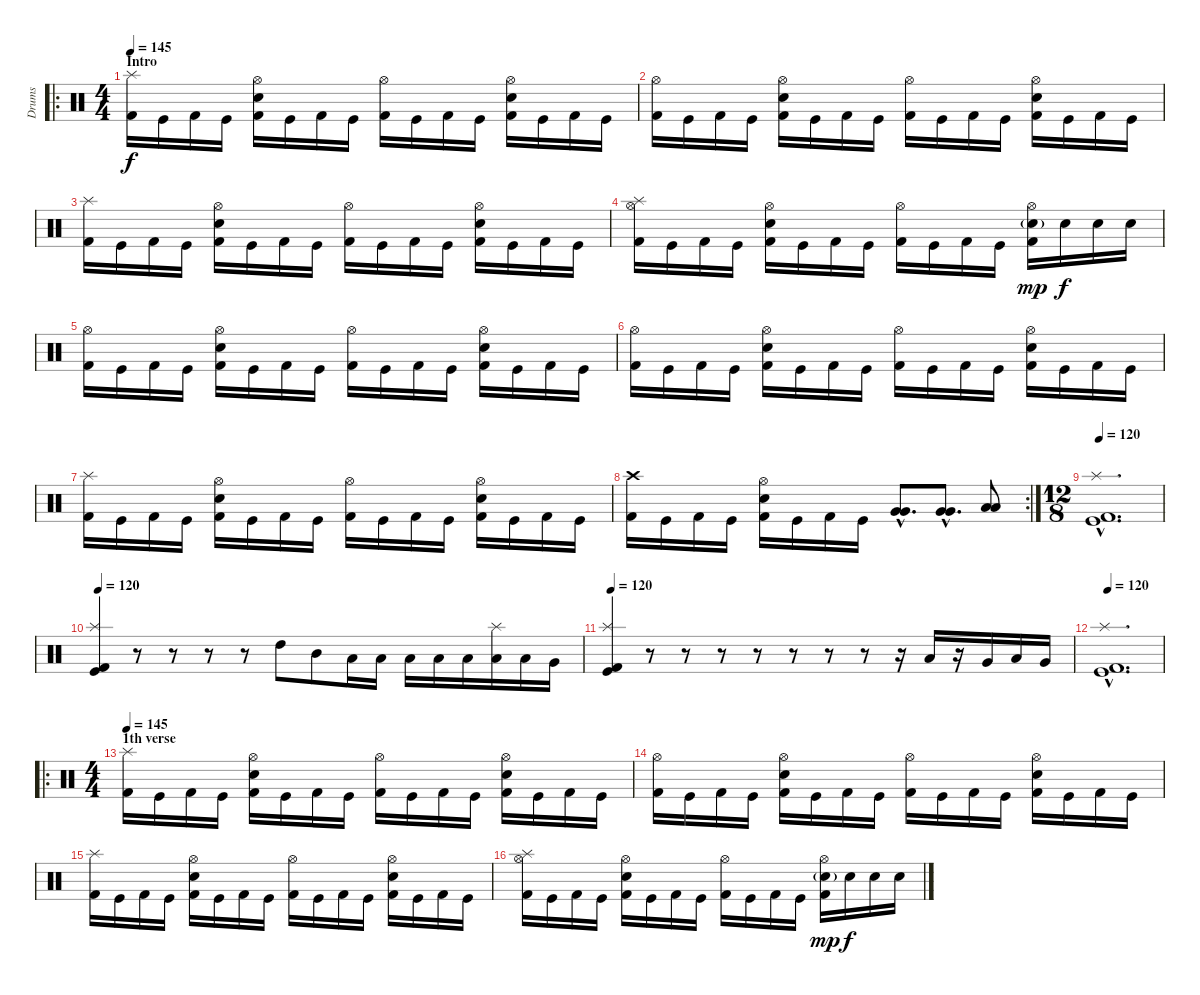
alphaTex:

\track ("Drums" "Drums") {instrument percussion}
\staff {score}
\articulation defaults
\ro
\ts (4 4)
\section ("" "Intro")
\tempo 145
\clef neutral
\ks c
("Kick (hit) 2" "Splash (hit)").16{dy f} "Kick (hit)".16 "Kick (hit) 2".16 "Kick (hit)".16 ("Kick (hit) 2" "Electric Snare (hit)" "Hi-Hat (open)").16 "Kick (hit)".16 "Kick (hit) 2".16 "Kick (hit)".16 ("Kick (hit) 2" "Hi-Hat (open)").16 "Kick (hit)".16 "Kick (hit) 2".16 "Kick (hit)".16 ("Kick (hit) 2" "Electric Snare (hit)" "Hi-Hat (open)").16 "Kick (hit)".16 "Kick (hit) 2".16 "Kick (hit)".16 |
("Kick (hit) 2" "Hi-Hat (open)").16 "Kick (hit)".16 "Kick (hit) 2".16 "Kick (hit)".16 ("Kick (hit) 2" "Electric Snare (hit)" "Hi-Hat (open)").16 "Kick (hit)".16 "Kick (hit) 2".16 "Kick (hit)".16 ("Kick (hit) 2" "Hi-Hat (open)").16 "Kick (hit)".16 "Kick (hit) 2".16 "Kick (hit)".16 ("Kick (hit) 2" "Electric Snare (hit)" "Hi-Hat (open)").16 "Kick (hit)".16 "Kick (hit) 2".16 "Kick (hit)".16 |
("Kick (hit) 2" "Splash (hit)").16 "Kick (hit)".16 "Kick (hit) 2".16 "Kick (hit)".16 ("Kick (hit) 2" "Electric Snare (hit)" "Hi-Hat (open)").16 "Kick (hit)".16 "Kick (hit) 2".16 "Kick (hit)".16 ("Kick (hit) 2" "Hi-Hat (open)").16 "Kick (hit)".16 "Kick (hit) 2".16 "Kick (hit)".16 ("Kick (hit) 2" "Electric Snare (hit)" "Hi-Hat (open)").16 "Kick (hit)".16 "Kick (hit) 2".16 "Kick (hit)".16 |
("Kick (hit) 2" "Splash (hit)" "Hi-Hat (open)").16 "Kick (hit)".16 "Kick (hit) 2".16 "Kick (hit)".16 ("Kick (hit) 2" "Electric Snare (hit)" "Hi-Hat (open)").16 "Kick (hit)".16 "Kick (hit) 2".16 "Kick (hit)".16 ("Kick (hit) 2" "Hi-Hat (open)").16 "Kick (hit)".16 "Kick (hit) 2".16 "Kick (hit)".16 ("Kick (hit) 2" "Electric Snare (hit)"{g} "Hi-Hat (open)").16{dy mp} "Electric Snare (hit)".16{dy f} "Electric Snare (hit)".16 "Electric Snare (hit)".16 |
("Kick (hit) 2" "Hi-Hat (open)").16 "Kick (hit)".16 "Kick (hit) 2".16 "Kick (hit)".16 ("Kick (hit) 2" "Electric Snare (hit)" "Hi-Hat (open)").16 "Kick (hit)".16 "Kick (hit) 2".16 "Kick (hit)".16 ("Kick (hit) 2" "Hi-Hat (open)").16 "Kick (hit)".16 "Kick (hit) 2".16 "Kick (hit)".16 ("Kick (hit) 2" "Electric Snare (hit)" "Hi-Hat (open)").16 "Kick (hit)".16 "Kick (hit) 2".16 "Kick (hit)".16 |
("Kick (hit) 2" "Hi-Hat (open)").16 "Kick (hit)".16 "Kick (hit) 2".16 "Kick (hit)".16 ("Kick (hit) 2" "Electric Snare (hit)" "Hi-Hat (open)").16 "Kick (hit)".16 "Kick (hit) 2".16 "Kick (hit)".16 ("Kick (hit) 2" "Hi-Hat (open)").16 "Kick (hit)".16 "Kick (hit) 2".16 "Kick (hit)".16 ("Kick (hit) 2" "Electric Snare (hit)" "Hi-Hat (open)").16 "Kick (hit)".16 "Kick (hit) 2".16 "Kick (hit)".16 |
("Kick (hit) 2" "Splash (hit)").16 "Kick (hit)".16 "Kick (hit) 2".16 "Kick (hit)".16 ("Kick (hit) 2" "Electric Snare (hit)" "Hi-Hat (open)").16 "Kick (hit)".16 "Kick (hit) 2".16 "Kick (hit)".16 ("Kick (hit) 2" "Hi-Hat (open)").16 "Kick (hit)".16 "Kick (hit) 2".16 "Kick (hit)".16 ("Kick (hit) 2" "Electric Snare (hit)" "Hi-Hat (open)").16 "Kick (hit)".16 "Kick (hit) 2".16 "Kick (hit)".16 |
\rc 2
("Kick (hit) 2" "Crash high (hit)").16 "Kick (hit)".16 "Kick (hit) 2".16 "Kick (hit)".16 ("Kick (hit) 2" "Electric Snare (hit)" "Hi-Hat (open)").16 "Kick (hit)".16 "Kick (hit) 2".16 "Kick (hit)".16 ("Very Low Tom (hit)"{hac} "Very Low Tom (hit)"{hac}).8{d} ("Very Low Tom (hit)"{hac} "Very Low Tom (hit)"{hac}).8{d} ("Low Tom (hit)" "Low Tom (hit)").8 |
\ts (12 8)
\tempo 120
("Kick (hit) 2"{hac} "Kick (hit)"{hac} "Splash (hit)"{hac}).1{d} |
\tempo 120
("Kick (hit) 2" "Kick (hit)" "Splash (hit)").4 r.8 r.8 r.8 r.8 "High Tom (hit)".8 "Mid Tom (hit)".8 "Low Tom (hit)".16 "Low Tom (hit)".16 "Low Tom (hit)".16 "Low Tom (hit)".16 "Low Tom (hit)".16 ("Low Tom (hit)" "Splash (hit)").16 "Low Tom (hit)".16 "Very Low Tom (hit)".16 |
\tempo 120
("Kick (hit) 2" "Kick (hit)" "Splash (hit)").4 r.8 r.8 r.8 r.8 r.8 r.8 r.8 r.16 "Low Tom (hit)".16 r.16 "Very Low Tom (hit)".16 "Low Tom (hit)".16 "Very Low Tom (hit)".16 |
\tempo 120
("Kick (hit) 2"{hac} "Kick (hit)"{hac} "Splash (hit)"{hac}).1{d} |
\ro
\ts (4 4)
\section ("" "1th verse")
\tempo 145
("Kick (hit) 2" "Splash (hit)").16 "Kick (hit)".16 "Kick (hit) 2".16 "Kick (hit)".16 ("Kick (hit) 2" "Electric Snare (hit)" "Hi-Hat (open)").16 "Kick (hit)".16 "Kick (hit) 2".16 "Kick (hit)".16 ("Kick (hit) 2" "Hi-Hat (open)").16 "Kick (hit)".16 "Kick (hit) 2".16 "Kick (hit)".16 ("Kick (hit) 2" "Electric Snare (hit)" "Hi-Hat (open)").16 "Kick (hit)".16 "Kick (hit) 2".16 "Kick (hit)".16 |
("Kick (hit) 2" "Hi-Hat (open)").16 "Kick (hit)".16 "Kick (hit) 2".16 "Kick (hit)".16 ("Kick (hit) 2" "Electric Snare (hit)" "Hi-Hat (open)").16 "Kick (hit)".16 "Kick (hit) 2".16 "Kick (hit)".16 ("Kick (hit) 2" "Hi-Hat (open)").16 "Kick (hit)".16 "Kick (hit) 2".16 "Kick (hit)".16 ("Kick (hit) 2" "Electric Snare (hit)" "Hi-Hat (open)").16 "Kick (hit)".16 "Kick (hit) 2".16 "Kick (hit)".16 |
("Kick (hit) 2" "Splash (hit)").16 "Kick (hit)".16 "Kick (hit) 2".16 "Kick (hit)".16 ("Kick (hit) 2" "Electric Snare (hit)" "Hi-Hat (open)").16 "Kick (hit)".16 "Kick (hit) 2".16 "Kick (hit)".16 ("Kick (hit) 2" "Hi-Hat (open)").16 "Kick (hit)".16 "Kick (hit) 2".16 "Kick (hit)".16 ("Kick (hit) 2" "Electric Snare (hit)" "Hi-Hat (open)").16 "Kick (hit)".16 "Kick (hit) 2".16 "Kick (hit)".16 |
("Kick (hit) 2" "Splash (hit)" "Hi-Hat (open)").16 "Kick (hit)".16 "Kick (hit) 2".16 "Kick (hit)".16 ("Kick (hit) 2" "Electric Snare (hit)" "Hi-Hat (open)").16 "Kick (hit)".16 "Kick (hit) 2".16 "Kick (hit)".16 ("Kick (hit) 2" "Hi-Hat (open)").16 "Kick (hit)".16 "Kick (hit) 2".16 "Kick (hit)".16 ("Kick (hit) 2" "Electric Snare (hit)"{g} "Hi-Hat (open)").16{dy mp} "Electric Snare (hit)".16{dy f} "Electric Snare (hit)".16 "Electric Snare (hit)".16
